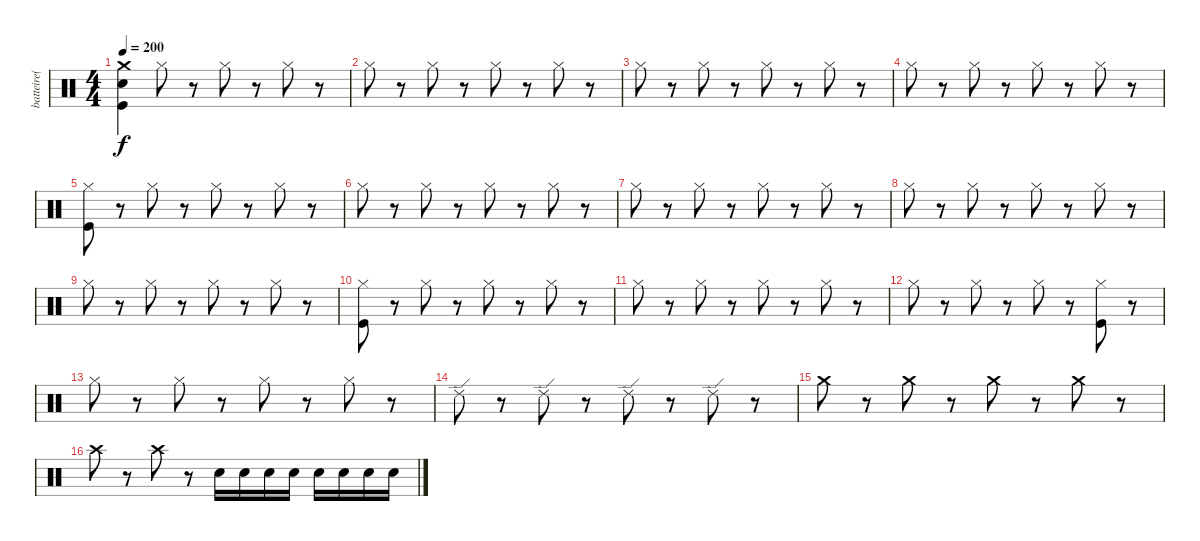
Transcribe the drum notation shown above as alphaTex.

\track ("batteire( Danny Alaro )" "batteire( ") {instrument percussion}
\staff {score}
\articulation defaults
\ts (4 4)
\tempo 200
\clef neutral
\ks c
("Crash medium (hit)" "Snare (hit) 2" "Kick (hit)").4{dy f} "Hi-Hat (closed)".8 r.8 "Hi-Hat (closed)".8 r.8 "Hi-Hat (closed)".8 r.8 |
"Hi-Hat (closed)".8 r.8 "Hi-Hat (closed)".8 r.8 "Hi-Hat (closed)".8 r.8 "Hi-Hat (closed)".8 r.8 |
"Hi-Hat (closed)".8 r.8 "Hi-Hat (closed)".8 r.8 "Hi-Hat (closed)".8 r.8 "Hi-Hat (closed)".8 r.8 |
"Hi-Hat (closed)".8 r.8 "Hi-Hat (closed)".8 r.8 "Hi-Hat (closed)".8 r.8 "Hi-Hat (closed)".8 r.8 |
("Hi-Hat (closed)" "Kick (hit)").8 r.8 "Hi-Hat (closed)".8 r.8 "Hi-Hat (closed)".8 r.8 "Hi-Hat (closed)".8 r.8 |
"Hi-Hat (closed)".8 r.8 "Hi-Hat (closed)".8 r.8 "Hi-Hat (closed)".8 r.8 "Hi-Hat (closed)".8 r.8 |
"Hi-Hat (closed)".8 r.8 "Hi-Hat (closed)".8 r.8 "Hi-Hat (closed)".8 r.8 "Hi-Hat (closed)".8 r.8 |
"Hi-Hat (closed)".8 r.8 "Hi-Hat (closed)".8 r.8 "Hi-Hat (closed)".8 r.8 "Hi-Hat (closed)".8 r.8 |
"Hi-Hat (closed)".8 r.8 "Hi-Hat (closed)".8 r.8 "Hi-Hat (closed)".8 r.8 "Hi-Hat (closed)".8 r.8 |
("Hi-Hat (closed)" "Kick (hit)").8 r.8 "Hi-Hat (closed)".8 r.8 "Hi-Hat (closed)".8 r.8 "Hi-Hat (closed)".8 r.8 |
"Hi-Hat (closed)".8 r.8 "Hi-Hat (closed)".8 r.8 "Hi-Hat (closed)".8 r.8 "Hi-Hat (closed)".8 r.8 |
"Hi-Hat (closed)".8 r.8 "Hi-Hat (closed)".8 r.8 "Hi-Hat (closed)".8 r.8 ("Hi-Hat (closed)" "Kick (hit)").8 r.8 |
"Hi-Hat (closed)".8 r.8 "Hi-Hat (closed)".8 r.8 "Hi-Hat (closed)".8 r.8 "Hi-Hat (closed)".8 r.8 |
"Ride (edge) 2".8 r.8 "Ride (edge) 2".8 r.8 "Ride (edge) 2".8 r.8 "Ride (edge) 2".8 r.8 |
"Crash medium (hit)".8 r.8 "Crash medium (hit)".8 r.8 "Crash medium (hit)".8 r.8 "Crash medium (hit)".8 r.8 |
"Crash high (hit)".8 r.8 "Crash high (hit)".8 r.8 "Snare (hit) 2".16 "Snare (hit) 2".16 "Snare (hit) 2".16 "Snare (hit) 2".16 "Snare (hit) 2".16 "Snare (hit) 2".16 "Snare (hit) 2".16 "Snare (hit) 2".16
